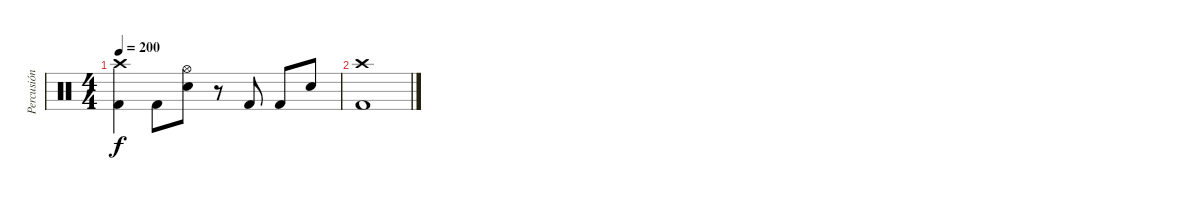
\track ("Percusión" "Percusión") {instrument percussion}
\staff {score}
\articulation defaults
\ts (4 4)
\tempo 200
\clef neutral
\ks c
("Crash high (hit)" "Kick (hit) 2").4{dy f} "Kick (hit) 2".8 ("Hi-Hat (open)" "Electric Snare (hit)").8 r.8 "Kick (hit) 2".8 "Kick (hit) 2".8 "Electric Snare (hit)".8 |
("Crash high (hit)" "Kick (hit) 2").1
